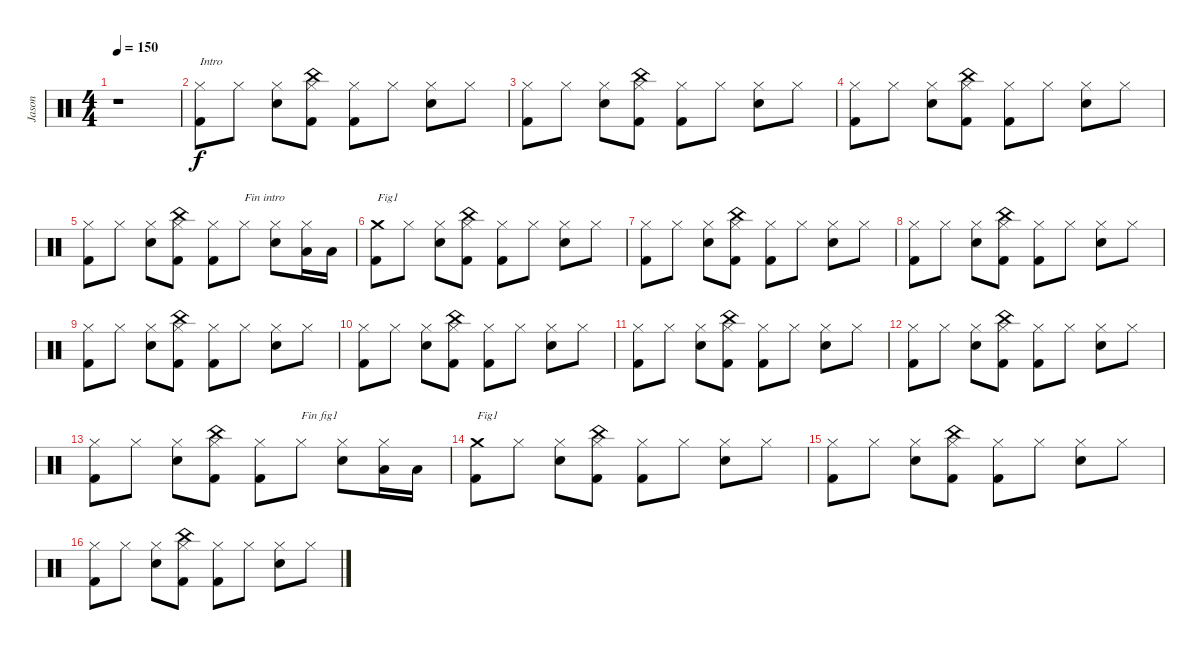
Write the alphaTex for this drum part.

\track ("Jason" "Jason") {instrument percussion}
\staff {score}
\articulation defaults
\ts (4 4)
\tempo 150
\clef neutral
\ks c
r.1{dy f} |
("Kick (hit) 2" "Hi-Hat (closed)").8{txt "Intro"} "Hi-Hat (closed)".8 ("Electric Snare (hit)" "Hi-Hat (closed)").8 ("Kick (hit) 2" "China (hit)" "Hi-Hat (closed)").8 ("Kick (hit) 2" "Hi-Hat (closed)").8 "Hi-Hat (closed)".8 ("Electric Snare (hit)" "Hi-Hat (closed)").8 "Hi-Hat (closed)".8 |
("Kick (hit) 2" "Hi-Hat (closed)").8 "Hi-Hat (closed)".8 ("Electric Snare (hit)" "Hi-Hat (closed)").8 ("Kick (hit) 2" "China (hit)" "Hi-Hat (closed)").8 ("Kick (hit) 2" "Hi-Hat (closed)").8 "Hi-Hat (closed)".8 ("Electric Snare (hit)" "Hi-Hat (closed)").8 "Hi-Hat (closed)".8 |
("Kick (hit) 2" "Hi-Hat (closed)").8 "Hi-Hat (closed)".8 ("Electric Snare (hit)" "Hi-Hat (closed)").8 ("Kick (hit) 2" "China (hit)" "Hi-Hat (closed)").8 ("Kick (hit) 2" "Hi-Hat (closed)").8 "Hi-Hat (closed)".8 ("Electric Snare (hit)" "Hi-Hat (closed)").8 "Hi-Hat (closed)".8 |
("Kick (hit) 2" "Hi-Hat (closed)").8 "Hi-Hat (closed)".8 ("Electric Snare (hit)" "Hi-Hat (closed)").8 ("Kick (hit) 2" "China (hit)" "Hi-Hat (closed)").8 ("Kick (hit) 2" "Hi-Hat (closed)").8 "Hi-Hat (closed)".8{txt "Fin intro"} ("Electric Snare (hit)" "Hi-Hat (closed)").8 ("Low Tom (hit)" "Hi-Hat (closed)").16 "Low Tom (hit)".16 |
("Kick (hit) 2" "Crash medium (hit)").8{txt "Fig1"} "Hi-Hat (closed)".8 ("Electric Snare (hit)" "Hi-Hat (closed)").8 ("Kick (hit) 2" "China (hit)" "Hi-Hat (closed)").8 ("Kick (hit) 2" "Hi-Hat (closed)").8 "Hi-Hat (closed)".8 ("Electric Snare (hit)" "Hi-Hat (closed)").8 "Hi-Hat (closed)".8 |
("Kick (hit) 2" "Hi-Hat (closed)").8 "Hi-Hat (closed)".8 ("Electric Snare (hit)" "Hi-Hat (closed)").8 ("Kick (hit) 2" "China (hit)" "Hi-Hat (closed)").8 ("Kick (hit) 2" "Hi-Hat (closed)").8 "Hi-Hat (closed)".8 ("Electric Snare (hit)" "Hi-Hat (closed)").8 "Hi-Hat (closed)".8 |
("Kick (hit) 2" "Hi-Hat (closed)").8 "Hi-Hat (closed)".8 ("Electric Snare (hit)" "Hi-Hat (closed)").8 ("Kick (hit) 2" "China (hit)" "Hi-Hat (closed)").8 ("Kick (hit) 2" "Hi-Hat (closed)").8 "Hi-Hat (closed)".8 ("Electric Snare (hit)" "Hi-Hat (closed)").8 "Hi-Hat (closed)".8 |
("Kick (hit) 2" "Hi-Hat (closed)").8 "Hi-Hat (closed)".8 ("Electric Snare (hit)" "Hi-Hat (closed)").8 ("Kick (hit) 2" "China (hit)" "Hi-Hat (closed)").8 ("Kick (hit) 2" "Hi-Hat (closed)").8 "Hi-Hat (closed)".8 ("Electric Snare (hit)" "Hi-Hat (closed)").8 "Hi-Hat (closed)".8 |
("Kick (hit) 2" "Hi-Hat (closed)").8 "Hi-Hat (closed)".8 ("Electric Snare (hit)" "Hi-Hat (closed)").8 ("Kick (hit) 2" "China (hit)" "Hi-Hat (closed)").8 ("Kick (hit) 2" "Hi-Hat (closed)").8 "Hi-Hat (closed)".8 ("Electric Snare (hit)" "Hi-Hat (closed)").8 "Hi-Hat (closed)".8 |
("Kick (hit) 2" "Hi-Hat (closed)").8 "Hi-Hat (closed)".8 ("Electric Snare (hit)" "Hi-Hat (closed)").8 ("Kick (hit) 2" "China (hit)" "Hi-Hat (closed)").8 ("Kick (hit) 2" "Hi-Hat (closed)").8 "Hi-Hat (closed)".8 ("Electric Snare (hit)" "Hi-Hat (closed)").8 "Hi-Hat (closed)".8 |
("Kick (hit) 2" "Hi-Hat (closed)").8 "Hi-Hat (closed)".8 ("Electric Snare (hit)" "Hi-Hat (closed)").8 ("Kick (hit) 2" "China (hit)" "Hi-Hat (closed)").8 ("Kick (hit) 2" "Hi-Hat (closed)").8 "Hi-Hat (closed)".8 ("Electric Snare (hit)" "Hi-Hat (closed)").8 "Hi-Hat (closed)".8 |
("Kick (hit) 2" "Hi-Hat (closed)").8 "Hi-Hat (closed)".8 ("Electric Snare (hit)" "Hi-Hat (closed)").8 ("Kick (hit) 2" "China (hit)" "Hi-Hat (closed)").8 ("Kick (hit) 2" "Hi-Hat (closed)").8 "Hi-Hat (closed)".8{txt "Fin fig1"} ("Electric Snare (hit)" "Hi-Hat (closed)").8 ("Low Tom (hit)" "Hi-Hat (closed)").16 "Low Tom (hit)".16 |
("Kick (hit) 2" "Crash medium (hit)").8{txt "Fig1"} "Hi-Hat (closed)".8 ("Electric Snare (hit)" "Hi-Hat (closed)").8 ("Kick (hit) 2" "China (hit)" "Hi-Hat (closed)").8 ("Kick (hit) 2" "Hi-Hat (closed)").8 "Hi-Hat (closed)".8 ("Electric Snare (hit)" "Hi-Hat (closed)").8 "Hi-Hat (closed)".8 |
("Kick (hit) 2" "Hi-Hat (closed)").8 "Hi-Hat (closed)".8 ("Electric Snare (hit)" "Hi-Hat (closed)").8 ("Kick (hit) 2" "China (hit)" "Hi-Hat (closed)").8 ("Kick (hit) 2" "Hi-Hat (closed)").8 "Hi-Hat (closed)".8 ("Electric Snare (hit)" "Hi-Hat (closed)").8 "Hi-Hat (closed)".8 |
("Kick (hit) 2" "Hi-Hat (closed)").8 "Hi-Hat (closed)".8 ("Electric Snare (hit)" "Hi-Hat (closed)").8 ("Kick (hit) 2" "China (hit)" "Hi-Hat (closed)").8 ("Kick (hit) 2" "Hi-Hat (closed)").8 "Hi-Hat (closed)".8 ("Electric Snare (hit)" "Hi-Hat (closed)").8 "Hi-Hat (closed)".8
